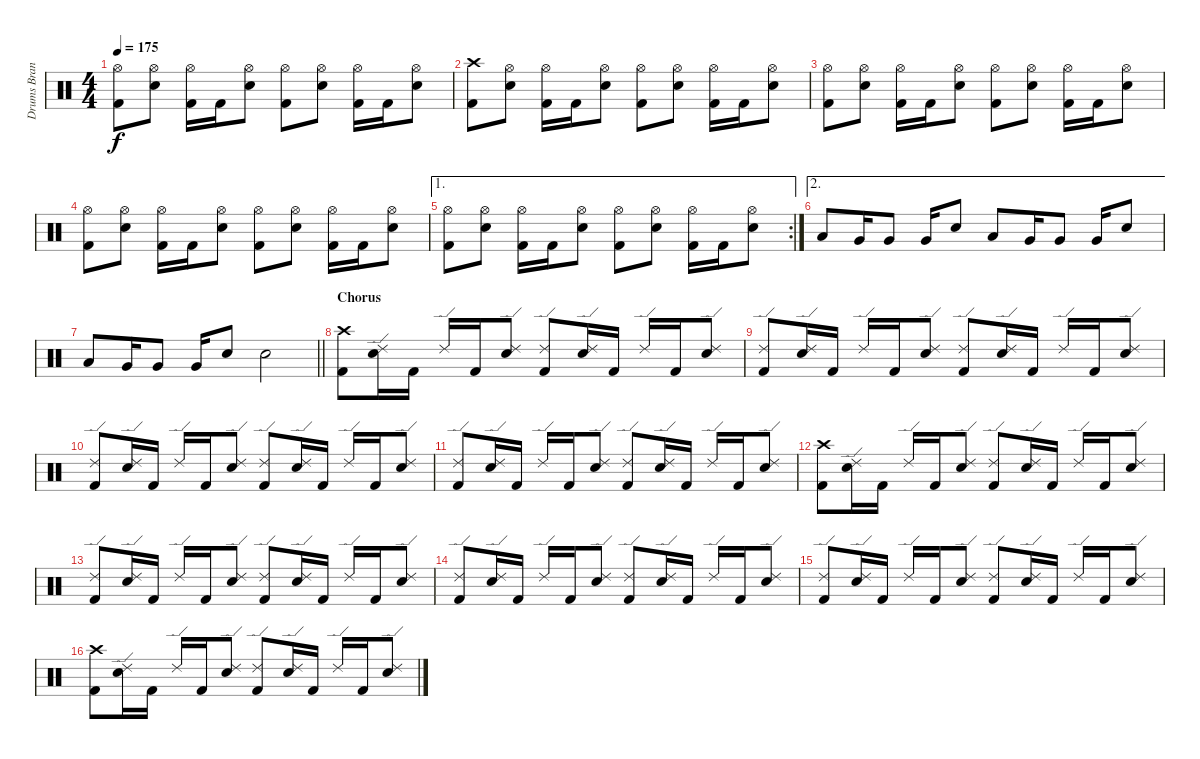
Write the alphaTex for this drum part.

\track ("Drums Brandon" "Drums Bran") {instrument percussion}
\staff {score}
\articulation defaults
\ts (4 4)
\tempo 175
\clef neutral
\ks c
("Hi-Hat (open)" "Kick (hit) 2").8{dy f} ("Hi-Hat (open)" "Electric Snare (hit)").8 ("Hi-Hat (open)" "Kick (hit) 2").16 "Kick (hit) 2".16 ("Hi-Hat (open)" "Electric Snare (hit)").8 ("Hi-Hat (open)" "Kick (hit) 2").8 ("Hi-Hat (open)" "Electric Snare (hit)").8 ("Hi-Hat (open)" "Kick (hit) 2").16 "Kick (hit) 2".16 ("Hi-Hat (open)" "Electric Snare (hit)").8 |
("Crash high (hit)" "Kick (hit) 2").8 ("Hi-Hat (open)" "Electric Snare (hit)").8 ("Hi-Hat (open)" "Kick (hit) 2").16 "Kick (hit) 2".16 ("Hi-Hat (open)" "Electric Snare (hit)").8 ("Hi-Hat (open)" "Kick (hit) 2").8 ("Hi-Hat (open)" "Electric Snare (hit)").8 ("Hi-Hat (open)" "Kick (hit) 2").16 "Kick (hit) 2".16 ("Hi-Hat (open)" "Electric Snare (hit)").8 |
("Hi-Hat (open)" "Kick (hit) 2").8 ("Hi-Hat (open)" "Electric Snare (hit)").8 ("Hi-Hat (open)" "Kick (hit) 2").16 "Kick (hit) 2".16 ("Hi-Hat (open)" "Electric Snare (hit)").8 ("Hi-Hat (open)" "Kick (hit) 2").8 ("Hi-Hat (open)" "Electric Snare (hit)").8 ("Hi-Hat (open)" "Kick (hit) 2").16 "Kick (hit) 2".16 ("Hi-Hat (open)" "Electric Snare (hit)").8 |
("Hi-Hat (open)" "Kick (hit) 2").8 ("Hi-Hat (open)" "Electric Snare (hit)").8 ("Hi-Hat (open)" "Kick (hit) 2").16 "Kick (hit) 2".16 ("Hi-Hat (open)" "Electric Snare (hit)").8 ("Hi-Hat (open)" "Kick (hit) 2").8 ("Hi-Hat (open)" "Electric Snare (hit)").8 ("Hi-Hat (open)" "Kick (hit) 2").16 "Kick (hit) 2".16 ("Hi-Hat (open)" "Electric Snare (hit)").8 |
\ae 1
\rc 2
("Hi-Hat (open)" "Kick (hit) 2").8 ("Hi-Hat (open)" "Electric Snare (hit)").8 ("Hi-Hat (open)" "Kick (hit) 2").16 "Kick (hit) 2".16 ("Hi-Hat (open)" "Electric Snare (hit)").8 ("Hi-Hat (open)" "Kick (hit) 2").8 ("Hi-Hat (open)" "Electric Snare (hit)").8 ("Hi-Hat (open)" "Kick (hit) 2").16 "Kick (hit) 2".16 ("Hi-Hat (open)" "Electric Snare (hit)").8 |
\ae 2 "Low Tom (hit)".8 "Very Low Tom (hit)".16 "Very Low Tom (hit)".8 "Very Low Tom (hit)".16 "Electric Snare (hit)".8 "Low Tom (hit)".8 "Very Low Tom (hit)".16 "Very Low Tom (hit)".8 "Very Low Tom (hit)".16 "Electric Snare (hit)".8
|
\barLineRight lightlight "Low Tom (hit)".8 "Very Low Tom (hit)".16 "Very Low Tom (hit)".8 "Very Low Tom (hit)".16 "Electric Snare (hit)".8 "Electric Snare (hit)".2
|
\section ("" "Chorus")
("Crash high (hit)" "Kick (hit) 2").8 ("Ride (edge) 2" "Electric Snare (hit)").16 "Kick (hit) 2".16 "Ride (edge) 2".16 "Kick (hit) 2".16 ("Ride (edge) 2" "Electric Snare (hit)").8 ("Ride (edge) 2" "Kick (hit) 2").8 ("Ride (edge) 2" "Electric Snare (hit)").16 "Kick (hit) 2".16 "Ride (edge) 2".16 "Kick (hit) 2".16 ("Ride (edge) 2" "Electric Snare (hit)").8 |
("Ride (edge) 2" "Kick (hit) 2").8 ("Ride (edge) 2" "Electric Snare (hit)").16 "Kick (hit) 2".16 "Ride (edge) 2".16 "Kick (hit) 2".16 ("Ride (edge) 2" "Electric Snare (hit)").8 ("Ride (edge) 2" "Kick (hit) 2").8 ("Ride (edge) 2" "Electric Snare (hit)").16 "Kick (hit) 2".16 "Ride (edge) 2".16 "Kick (hit) 2".16 ("Ride (edge) 2" "Electric Snare (hit)").8 |
("Ride (edge) 2" "Kick (hit) 2").8 ("Ride (edge) 2" "Electric Snare (hit)").16 "Kick (hit) 2".16 "Ride (edge) 2".16 "Kick (hit) 2".16 ("Ride (edge) 2" "Electric Snare (hit)").8 ("Ride (edge) 2" "Kick (hit) 2").8 ("Ride (edge) 2" "Electric Snare (hit)").16 "Kick (hit) 2".16 "Ride (edge) 2".16 "Kick (hit) 2".16 ("Ride (edge) 2" "Electric Snare (hit)").8 |
("Ride (edge) 2" "Kick (hit) 2").8 ("Ride (edge) 2" "Electric Snare (hit)").16 "Kick (hit) 2".16 "Ride (edge) 2".16 "Kick (hit) 2".16 ("Ride (edge) 2" "Electric Snare (hit)").8 ("Ride (edge) 2" "Kick (hit) 2").8 ("Ride (edge) 2" "Electric Snare (hit)").16 "Kick (hit) 2".16 "Ride (edge) 2".16 "Kick (hit) 2".16 ("Ride (edge) 2" "Electric Snare (hit)").8 |
("Crash high (hit)" "Kick (hit) 2").8 ("Ride (edge) 2" "Electric Snare (hit)").16 "Kick (hit) 2".16 "Ride (edge) 2".16 "Kick (hit) 2".16 ("Ride (edge) 2" "Electric Snare (hit)").8 ("Ride (edge) 2" "Kick (hit) 2").8 ("Ride (edge) 2" "Electric Snare (hit)").16 "Kick (hit) 2".16 "Ride (edge) 2".16 "Kick (hit) 2".16 ("Ride (edge) 2" "Electric Snare (hit)").8 |
("Ride (edge) 2" "Kick (hit) 2").8 ("Ride (edge) 2" "Electric Snare (hit)").16 "Kick (hit) 2".16 "Ride (edge) 2".16 "Kick (hit) 2".16 ("Ride (edge) 2" "Electric Snare (hit)").8 ("Ride (edge) 2" "Kick (hit) 2").8 ("Ride (edge) 2" "Electric Snare (hit)").16 "Kick (hit) 2".16 "Ride (edge) 2".16 "Kick (hit) 2".16 ("Ride (edge) 2" "Electric Snare (hit)").8 |
("Ride (edge) 2" "Kick (hit) 2").8 ("Ride (edge) 2" "Electric Snare (hit)").16 "Kick (hit) 2".16 "Ride (edge) 2".16 "Kick (hit) 2".16 ("Ride (edge) 2" "Electric Snare (hit)").8 ("Ride (edge) 2" "Kick (hit) 2").8 ("Ride (edge) 2" "Electric Snare (hit)").16 "Kick (hit) 2".16 "Ride (edge) 2".16 "Kick (hit) 2".16 ("Ride (edge) 2" "Electric Snare (hit)").8 |
("Ride (edge) 2" "Kick (hit) 2").8 ("Ride (edge) 2" "Electric Snare (hit)").16 "Kick (hit) 2".16 "Ride (edge) 2".16 "Kick (hit) 2".16 ("Ride (edge) 2" "Electric Snare (hit)").8 ("Ride (edge) 2" "Kick (hit) 2").8 ("Ride (edge) 2" "Electric Snare (hit)").16 "Kick (hit) 2".16 "Ride (edge) 2".16 "Kick (hit) 2".16 ("Ride (edge) 2" "Electric Snare (hit)").8 |
("Crash high (hit)" "Kick (hit) 2").8 ("Ride (edge) 2" "Electric Snare (hit)").16 "Kick (hit) 2".16 "Ride (edge) 2".16 "Kick (hit) 2".16 ("Ride (edge) 2" "Electric Snare (hit)").8 ("Ride (edge) 2" "Kick (hit) 2").8 ("Ride (edge) 2" "Electric Snare (hit)").16 "Kick (hit) 2".16 "Ride (edge) 2".16 "Kick (hit) 2".16 ("Ride (edge) 2" "Electric Snare (hit)").8
